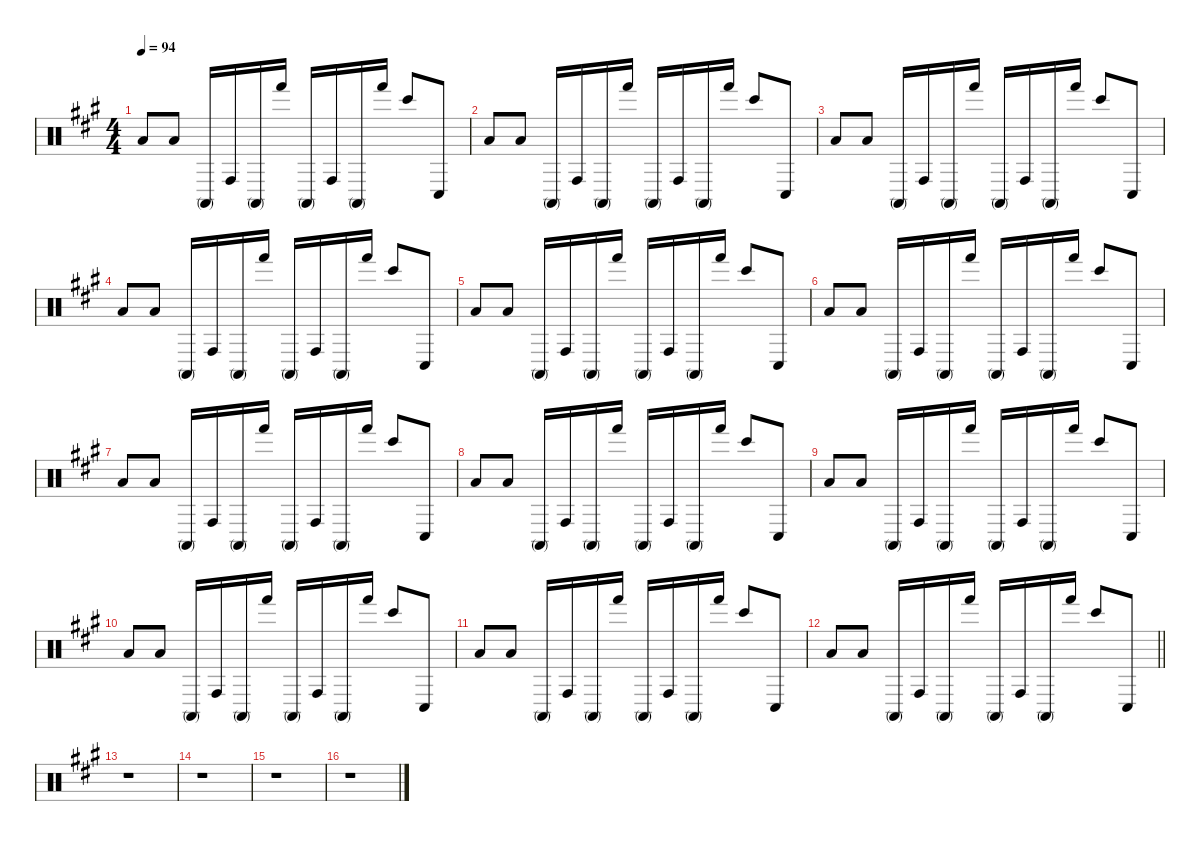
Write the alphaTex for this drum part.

\defaultSystemsLayout 4
\hideDynamics
\bracketExtendMode nobrackets
\singleTrackTrackNamePolicy hidden
\multiTrackTrackNamePolicy hidden
\firstSystemTrackNameMode fullname
\firstSystemTrackNameOrientation horizontal
\otherSystemsTrackNameOrientation horizontal
\track ("Bongos" "drm.") {defaultSystemsLayout 4 instrument percussion}
\staff {score}
\articulation defaults
\ts (4 4)
\tempo 94
\clef neutral
\ks a "Low Floor Tom (hit)"{acc forcenatural}.8{dy f beam Up} "Low Floor Tom (hit)"{acc forcenatural}.8{beam Up} "Conga high (mute)"{acc forcenatural}.16{beam Up} "Conga high (hit)"{acc forcenatural}.16{beam Up} "Conga high (mute)"{acc forcenatural}.16{beam Up} "Hand (hit)"{acc forcenatural}.16{beam Up} "Conga high (mute)"{acc forcenatural}.16{beam Up} "Conga high (hit)"{acc forcenatural}.16{beam Up} "Conga high (mute)"{acc forcenatural}.16{beam Up} "Hand (hit)"{acc forcenatural}.16{beam Up} "Bongo High (hit)"{acc forcenatural}.8{beam Up} "Conga low (hit)"{acc forcenatural}.8{beam Up}
|
"Low Floor Tom (hit)"{acc forcenatural}.8{beam Up} "Low Floor Tom (hit)"{acc forcenatural}.8{beam Up} "Conga high (mute)"{acc forcenatural}.16{beam Up} "Conga high (hit)"{acc forcenatural}.16{beam Up} "Conga high (mute)"{acc forcenatural}.16{beam Up} "Hand (hit)"{acc forcenatural}.16{beam Up} "Conga high (mute)"{acc forcenatural}.16{beam Up} "Conga high (hit)"{acc forcenatural}.16{beam Up} "Conga high (mute)"{acc forcenatural}.16{beam Up} "Hand (hit)"{acc forcenatural}.16{beam Up} "Bongo High (hit)"{acc forcenatural}.8{beam Up} "Conga low (hit)"{acc forcenatural}.8{beam Up} |
"Low Floor Tom (hit)"{acc forcenatural}.8{beam Up} "Low Floor Tom (hit)"{acc forcenatural}.8{beam Up} "Conga high (mute)"{acc forcenatural}.16{beam Up} "Conga high (hit)"{acc forcenatural}.16{beam Up} "Conga high (mute)"{acc forcenatural}.16{beam Up} "Hand (hit)"{acc forcenatural}.16{beam Up} "Conga high (mute)"{acc forcenatural}.16{beam Up} "Conga high (hit)"{acc forcenatural}.16{beam Up} "Conga high (mute)"{acc forcenatural}.16{beam Up} "Hand (hit)"{acc forcenatural}.16{beam Up} "Bongo High (hit)"{acc forcenatural}.8{beam Up} "Conga low (hit)"{acc forcenatural}.8{beam Up} |
"Low Floor Tom (hit)"{acc forcenatural}.8{beam Up} "Low Floor Tom (hit)"{acc forcenatural}.8{beam Up} "Conga high (mute)"{acc forcenatural}.16{beam Up} "Conga high (hit)"{acc forcenatural}.16{beam Up} "Conga high (mute)"{acc forcenatural}.16{beam Up} "Hand (hit)"{acc forcenatural}.16{beam Up} "Conga high (mute)"{acc forcenatural}.16{beam Up} "Conga high (hit)"{acc forcenatural}.16{beam Up} "Conga high (mute)"{acc forcenatural}.16{beam Up} "Hand (hit)"{acc forcenatural}.16{beam Up} "Bongo High (hit)"{acc forcenatural}.8{beam Up} "Conga low (hit)"{acc forcenatural}.8{beam Up} |
"Low Floor Tom (hit)"{acc forcenatural}.8{beam Up} "Low Floor Tom (hit)"{acc forcenatural}.8{beam Up} "Conga high (mute)"{acc forcenatural}.16{beam Up} "Conga high (hit)"{acc forcenatural}.16{beam Up} "Conga high (mute)"{acc forcenatural}.16{beam Up} "Hand (hit)"{acc forcenatural}.16{beam Up} "Conga high (mute)"{acc forcenatural}.16{beam Up} "Conga high (hit)"{acc forcenatural}.16{beam Up} "Conga high (mute)"{acc forcenatural}.16{beam Up} "Hand (hit)"{acc forcenatural}.16{beam Up} "Bongo High (hit)"{acc forcenatural}.8{beam Up} "Conga low (hit)"{acc forcenatural}.8{beam Up} |
"Low Floor Tom (hit)"{acc forcenatural}.8{beam Up} "Low Floor Tom (hit)"{acc forcenatural}.8{beam Up} "Conga high (mute)"{acc forcenatural}.16{beam Up} "Conga high (hit)"{acc forcenatural}.16{beam Up} "Conga high (mute)"{acc forcenatural}.16{beam Up} "Hand (hit)"{acc forcenatural}.16{beam Up} "Conga high (mute)"{acc forcenatural}.16{beam Up} "Conga high (hit)"{acc forcenatural}.16{beam Up} "Conga high (mute)"{acc forcenatural}.16{beam Up} "Hand (hit)"{acc forcenatural}.16{beam Up} "Bongo High (hit)"{acc forcenatural}.8{beam Up} "Conga low (hit)"{acc forcenatural}.8{beam Up} |
"Low Floor Tom (hit)"{acc forcenatural}.8{beam Up} "Low Floor Tom (hit)"{acc forcenatural}.8{beam Up} "Conga high (mute)"{acc forcenatural}.16{beam Up} "Conga high (hit)"{acc forcenatural}.16{beam Up} "Conga high (mute)"{acc forcenatural}.16{beam Up} "Hand (hit)"{acc forcenatural}.16{beam Up} "Conga high (mute)"{acc forcenatural}.16{beam Up} "Conga high (hit)"{acc forcenatural}.16{beam Up} "Conga high (mute)"{acc forcenatural}.16{beam Up} "Hand (hit)"{acc forcenatural}.16{beam Up} "Bongo High (hit)"{acc forcenatural}.8{beam Up} "Conga low (hit)"{acc forcenatural}.8{beam Up} |
"Low Floor Tom (hit)"{acc forcenatural}.8{beam Up} "Low Floor Tom (hit)"{acc forcenatural}.8{beam Up} "Conga high (mute)"{acc forcenatural}.16{beam Up} "Conga high (hit)"{acc forcenatural}.16{beam Up} "Conga high (mute)"{acc forcenatural}.16{beam Up} "Hand (hit)"{acc forcenatural}.16{beam Up} "Conga high (mute)"{acc forcenatural}.16{beam Up} "Conga high (hit)"{acc forcenatural}.16{beam Up} "Conga high (mute)"{acc forcenatural}.16{beam Up} "Hand (hit)"{acc forcenatural}.16{beam Up} "Bongo High (hit)"{acc forcenatural}.8{beam Up} "Conga low (hit)"{acc forcenatural}.8{beam Up} |
"Low Floor Tom (hit)"{acc forcenatural}.8{beam Up} "Low Floor Tom (hit)"{acc forcenatural}.8{beam Up} "Conga high (mute)"{acc forcenatural}.16{beam Up} "Conga high (hit)"{acc forcenatural}.16{beam Up} "Conga high (mute)"{acc forcenatural}.16{beam Up} "Hand (hit)"{acc forcenatural}.16{beam Up} "Conga high (mute)"{acc forcenatural}.16{beam Up} "Conga high (hit)"{acc forcenatural}.16{beam Up} "Conga high (mute)"{acc forcenatural}.16{beam Up} "Hand (hit)"{acc forcenatural}.16{beam Up} "Bongo High (hit)"{acc forcenatural}.8{beam Up} "Conga low (hit)"{acc forcenatural}.8{beam Up} |
"Low Floor Tom (hit)"{acc forcenatural}.8{beam Up} "Low Floor Tom (hit)"{acc forcenatural}.8{beam Up} "Conga high (mute)"{acc forcenatural}.16{beam Up} "Conga high (hit)"{acc forcenatural}.16{beam Up} "Conga high (mute)"{acc forcenatural}.16{beam Up} "Hand (hit)"{acc forcenatural}.16{beam Up} "Conga high (mute)"{acc forcenatural}.16{beam Up} "Conga high (hit)"{acc forcenatural}.16{beam Up} "Conga high (mute)"{acc forcenatural}.16{beam Up} "Hand (hit)"{acc forcenatural}.16{beam Up} "Bongo High (hit)"{acc forcenatural}.8{beam Up} "Conga low (hit)"{acc forcenatural}.8{beam Up} |
"Low Floor Tom (hit)"{acc forcenatural}.8{beam Up} "Low Floor Tom (hit)"{acc forcenatural}.8{beam Up} "Conga high (mute)"{acc forcenatural}.16{beam Up} "Conga high (hit)"{acc forcenatural}.16{beam Up} "Conga high (mute)"{acc forcenatural}.16{beam Up} "Hand (hit)"{acc forcenatural}.16{beam Up} "Conga high (mute)"{acc forcenatural}.16{beam Up} "Conga high (hit)"{acc forcenatural}.16{beam Up} "Conga high (mute)"{acc forcenatural}.16{beam Up} "Hand (hit)"{acc forcenatural}.16{beam Up} "Bongo High (hit)"{acc forcenatural}.8{beam Up} "Conga low (hit)"{acc forcenatural}.8{beam Up} |
\barLineRight lightlight "Low Floor Tom (hit)"{acc forcenatural}.8{beam Up} "Low Floor Tom (hit)"{acc forcenatural}.8{beam Up} "Conga high (mute)"{acc forcenatural}.16{beam Up} "Conga high (hit)"{acc forcenatural}.16{beam Up} "Conga high (mute)"{acc forcenatural}.16{beam Up} "Hand (hit)"{acc forcenatural}.16{beam Up} "Conga high (mute)"{acc forcenatural}.16{beam Up} "Conga high (hit)"{acc forcenatural}.16{beam Up} "Conga high (mute)"{acc forcenatural}.16{beam Up} "Hand (hit)"{acc forcenatural}.16{beam Up} "Bongo High (hit)"{acc forcenatural}.8{beam Up} "Conga low (hit)"{acc forcenatural}.8{beam Up}
|
r.1{beam Down} |
r.1{beam Down} |
r.1{beam Down} |
r.1{beam Down}
